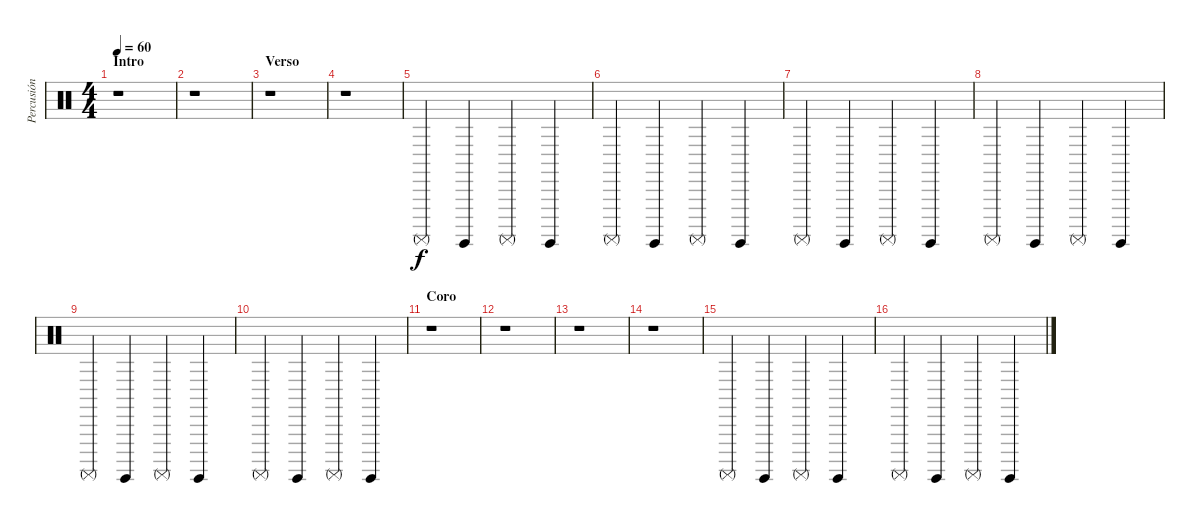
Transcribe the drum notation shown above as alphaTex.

\track ("Percusión" "Percusión") {instrument percussion}
\staff {score}
\articulation defaults
\ts (4 4)
\section ("" "Intro")
\tempo 60
\clef neutral
\ks c
r.1{dy f} |
r.1 |
\section ("" "Verso")
r.1 |
r.1 |
"Surdo (mute)".4 "Surdo (hit)".4 "Surdo (mute)".4 "Surdo (hit)".4 |
"Surdo (mute)".4 "Surdo (hit)".4 "Surdo (mute)".4 "Surdo (hit)".4 |
"Surdo (mute)".4 "Surdo (hit)".4 "Surdo (mute)".4 "Surdo (hit)".4 |
"Surdo (mute)".4 "Surdo (hit)".4 "Surdo (mute)".4 "Surdo (hit)".4 |
"Surdo (mute)".4 "Surdo (hit)".4 "Surdo (mute)".4 "Surdo (hit)".4 |
"Surdo (mute)".4 "Surdo (hit)".4 "Surdo (mute)".4 "Surdo (hit)".4 |
\section ("" "Coro")
r.1 |
r.1 |
r.1 |
r.1 |
"Surdo (mute)".4 "Surdo (hit)".4 "Surdo (mute)".4 "Surdo (hit)".4 |
"Surdo (mute)".4 "Surdo (hit)".4 "Surdo (mute)".4 "Surdo (hit)".4
